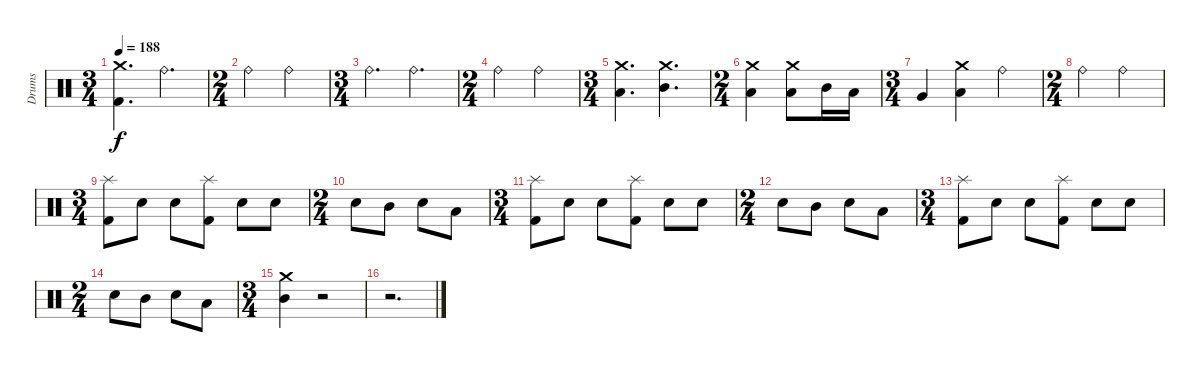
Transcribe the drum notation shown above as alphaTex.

\track ("Drums" "Drums") {instrument percussion}
\staff {score}
\articulation defaults
\ts (3 4)
\tempo 188
\clef neutral
\ks c
("Crash medium (hit)" "Kick (hit) 2").4{d dy f} "Ride (bell)".4{d} |
\ts (2 4)
"Ride (bell)".4 "Ride (bell)".4 |
\ts (3 4)
"Ride (bell)".4{d} "Ride (bell)".4{d} |
\ts (2 4)
"Ride (bell)".4 "Ride (bell)".4 |
\ts (3 4)
("Crash medium (hit)" "Low Tom (hit)").4{d} ("Crash medium (hit)" "Mid Tom (hit)").4{d} |
\ts (2 4)
("Crash medium (hit)" "Low Tom (hit)").4 ("Crash medium (hit)" "Low Tom (hit)").8 "Mid Tom (hit)".16 "Low Tom (hit)".16 |
\ts (3 4)
"Very Low Tom (hit)".4 ("Crash medium (hit)" "Low Floor Tom (hit)").4 "Ride (bell)".4 |
\ts (2 4)
"Ride (bell)".4 "Ride (bell)".4 |
\ts (3 4)
("Splash (hit)" "Kick (hit) 2").8 "Snare (hit) 2".8 "Snare (hit) 2".8 ("Splash (hit)" "Kick (hit) 2").8 "Snare (hit) 2".8 "Snare (hit) 2".8 |
\ts (2 4)
"Snare (hit) 2".8 "Mid Tom (hit)".8 "Electric Snare (hit)".8 "Low Tom (hit)".8 |
\ts (3 4)
("Splash (hit)" "Kick (hit) 2").8 "Snare (hit) 2".8 "Snare (hit) 2".8 ("Splash (hit)" "Kick (hit) 2").8 "Snare (hit) 2".8 "Snare (hit) 2".8 |
\ts (2 4)
"Snare (hit) 2".8 "Mid Tom (hit)".8 "Electric Snare (hit)".8 "Low Tom (hit)".8 |
\ts (3 4)
("Splash (hit)" "Kick (hit) 2").8 "Snare (hit) 2".8 "Snare (hit) 2".8 ("Splash (hit)" "Kick (hit) 2").8 "Snare (hit) 2".8 "Snare (hit) 2".8 |
\ts (2 4)
"Snare (hit) 2".8 "Mid Tom (hit)".8 "Electric Snare (hit)".8 "Low Tom (hit)".8 |
\ts (3 4)
("Crash medium (hit)" "Mid Tom (hit)").4 r.2 |
r.2{d}
